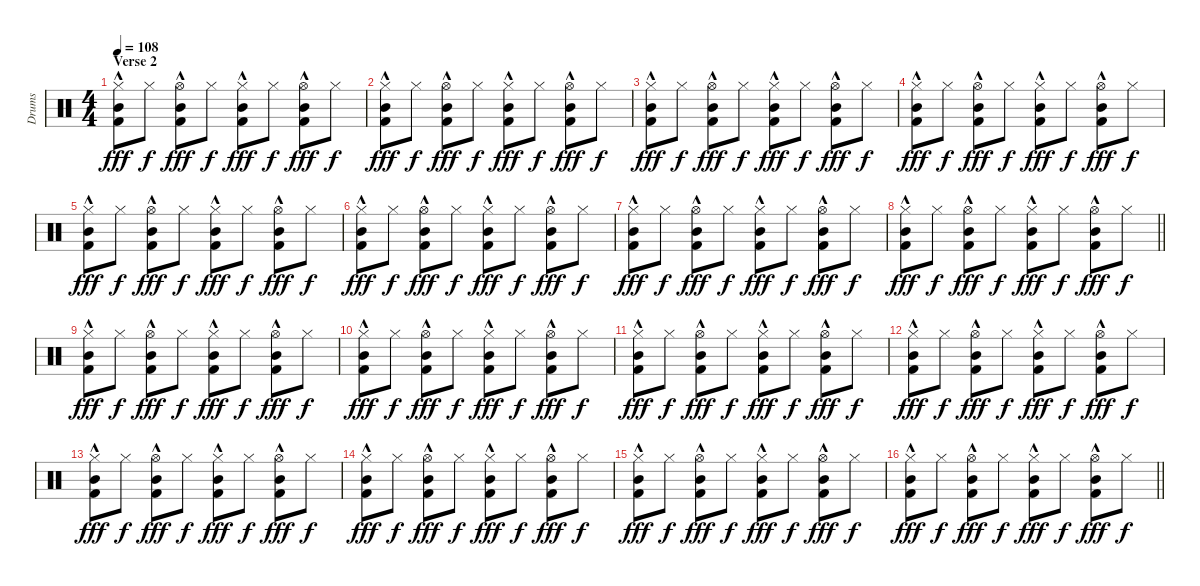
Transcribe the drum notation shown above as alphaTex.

\track ("Drums" "Drums") {instrument percussion}
\staff {score}
\articulation defaults
\ts (4 4)
\section ("" "Verse 2")
\tempo 108
\clef neutral
\ks c
("Hi-Hat (closed)" "Mid Tom (hit)" "Kick (hit) 2"{hac}).8{dy fff} "Hi-Hat (closed)".8{dy f} ("Hi-Hat (open)" "Mid Tom (hit)" "Kick (hit) 2"{hac}).8{dy fff} "Hi-Hat (closed)".8{dy f} ("Hi-Hat (closed)" "Mid Tom (hit)" "Kick (hit) 2"{hac}).8{dy fff} "Hi-Hat (closed)".8{dy f} ("Hi-Hat (open)" "Mid Tom (hit)" "Kick (hit) 2"{hac}).8{dy fff} "Hi-Hat (closed)".8{dy f} |
("Hi-Hat (closed)" "Mid Tom (hit)" "Kick (hit) 2"{hac}).8{dy fff} "Hi-Hat (closed)".8{dy f} ("Hi-Hat (open)" "Mid Tom (hit)" "Kick (hit) 2"{hac}).8{dy fff} "Hi-Hat (closed)".8{dy f} ("Hi-Hat (closed)" "Mid Tom (hit)" "Kick (hit) 2"{hac}).8{dy fff} "Hi-Hat (closed)".8{dy f} ("Hi-Hat (open)" "Mid Tom (hit)" "Kick (hit) 2"{hac}).8{dy fff} "Hi-Hat (closed)".8{dy f} |
("Hi-Hat (closed)" "Mid Tom (hit)" "Kick (hit) 2"{hac}).8{dy fff} "Hi-Hat (closed)".8{dy f} ("Hi-Hat (open)" "Mid Tom (hit)" "Kick (hit) 2"{hac}).8{dy fff} "Hi-Hat (closed)".8{dy f} ("Hi-Hat (closed)" "Mid Tom (hit)" "Kick (hit) 2"{hac}).8{dy fff} "Hi-Hat (closed)".8{dy f} ("Hi-Hat (open)" "Mid Tom (hit)" "Kick (hit) 2"{hac}).8{dy fff} "Hi-Hat (closed)".8{dy f} |
("Hi-Hat (closed)" "Mid Tom (hit)" "Kick (hit) 2"{hac}).8{dy fff} "Hi-Hat (closed)".8{dy f} ("Hi-Hat (open)" "Mid Tom (hit)" "Kick (hit) 2"{hac}).8{dy fff} "Hi-Hat (closed)".8{dy f} ("Hi-Hat (closed)" "Mid Tom (hit)" "Kick (hit) 2"{hac}).8{dy fff} "Hi-Hat (closed)".8{dy f} ("Hi-Hat (open)" "Mid Tom (hit)" "Kick (hit) 2"{hac}).8{dy fff} "Hi-Hat (closed)".8{dy f} |
("Hi-Hat (closed)" "Mid Tom (hit)" "Kick (hit) 2"{hac}).8{dy fff} "Hi-Hat (closed)".8{dy f} ("Hi-Hat (open)" "Mid Tom (hit)" "Kick (hit) 2"{hac}).8{dy fff} "Hi-Hat (closed)".8{dy f} ("Hi-Hat (closed)" "Mid Tom (hit)" "Kick (hit) 2"{hac}).8{dy fff} "Hi-Hat (closed)".8{dy f} ("Hi-Hat (open)" "Mid Tom (hit)" "Kick (hit) 2"{hac}).8{dy fff} "Hi-Hat (closed)".8{dy f} |
("Hi-Hat (closed)" "Mid Tom (hit)" "Kick (hit) 2"{hac}).8{dy fff} "Hi-Hat (closed)".8{dy f} ("Hi-Hat (open)" "Mid Tom (hit)" "Kick (hit) 2"{hac}).8{dy fff} "Hi-Hat (closed)".8{dy f} ("Hi-Hat (closed)" "Mid Tom (hit)" "Kick (hit) 2"{hac}).8{dy fff} "Hi-Hat (closed)".8{dy f} ("Hi-Hat (open)" "Mid Tom (hit)" "Kick (hit) 2"{hac}).8{dy fff} "Hi-Hat (closed)".8{dy f} |
("Hi-Hat (closed)" "Mid Tom (hit)" "Kick (hit) 2"{hac}).8{dy fff} "Hi-Hat (closed)".8{dy f} ("Hi-Hat (open)" "Mid Tom (hit)" "Kick (hit) 2"{hac}).8{dy fff} "Hi-Hat (closed)".8{dy f} ("Hi-Hat (closed)" "Mid Tom (hit)" "Kick (hit) 2"{hac}).8{dy fff} "Hi-Hat (closed)".8{dy f} ("Hi-Hat (open)" "Mid Tom (hit)" "Kick (hit) 2"{hac}).8{dy fff} "Hi-Hat (closed)".8{dy f} |
\barLineRight lightlight
("Hi-Hat (closed)" "Mid Tom (hit)" "Kick (hit) 2"{hac}).8{dy fff} "Hi-Hat (closed)".8{dy f} ("Hi-Hat (open)" "Mid Tom (hit)" "Kick (hit) 2"{hac}).8{dy fff} "Hi-Hat (closed)".8{dy f} ("Hi-Hat (closed)" "Mid Tom (hit)" "Kick (hit) 2"{hac}).8{dy fff} "Hi-Hat (closed)".8{dy f} ("Hi-Hat (open)" "Mid Tom (hit)" "Kick (hit) 2"{hac}).8{dy fff} "Hi-Hat (closed)".8{dy f} |
("Hi-Hat (closed)" "Mid Tom (hit)" "Kick (hit) 2"{hac}).8{dy fff} "Hi-Hat (closed)".8{dy f} ("Hi-Hat (open)" "Mid Tom (hit)" "Kick (hit) 2"{hac}).8{dy fff} "Hi-Hat (closed)".8{dy f} ("Hi-Hat (closed)" "Mid Tom (hit)" "Kick (hit) 2"{hac}).8{dy fff} "Hi-Hat (closed)".8{dy f} ("Hi-Hat (open)" "Mid Tom (hit)" "Kick (hit) 2"{hac}).8{dy fff} "Hi-Hat (closed)".8{dy f} |
("Hi-Hat (closed)" "Mid Tom (hit)" "Kick (hit) 2"{hac}).8{dy fff} "Hi-Hat (closed)".8{dy f} ("Hi-Hat (open)" "Mid Tom (hit)" "Kick (hit) 2"{hac}).8{dy fff} "Hi-Hat (closed)".8{dy f} ("Hi-Hat (closed)" "Mid Tom (hit)" "Kick (hit) 2"{hac}).8{dy fff} "Hi-Hat (closed)".8{dy f} ("Hi-Hat (open)" "Mid Tom (hit)" "Kick (hit) 2"{hac}).8{dy fff} "Hi-Hat (closed)".8{dy f} |
("Hi-Hat (closed)" "Mid Tom (hit)" "Kick (hit) 2"{hac}).8{dy fff} "Hi-Hat (closed)".8{dy f} ("Hi-Hat (open)" "Mid Tom (hit)" "Kick (hit) 2"{hac}).8{dy fff} "Hi-Hat (closed)".8{dy f} ("Hi-Hat (closed)" "Mid Tom (hit)" "Kick (hit) 2"{hac}).8{dy fff} "Hi-Hat (closed)".8{dy f} ("Hi-Hat (open)" "Mid Tom (hit)" "Kick (hit) 2"{hac}).8{dy fff} "Hi-Hat (closed)".8{dy f} |
("Hi-Hat (closed)" "Mid Tom (hit)" "Kick (hit) 2"{hac}).8{dy fff} "Hi-Hat (closed)".8{dy f} ("Hi-Hat (open)" "Mid Tom (hit)" "Kick (hit) 2"{hac}).8{dy fff} "Hi-Hat (closed)".8{dy f} ("Hi-Hat (closed)" "Mid Tom (hit)" "Kick (hit) 2"{hac}).8{dy fff} "Hi-Hat (closed)".8{dy f} ("Hi-Hat (open)" "Mid Tom (hit)" "Kick (hit) 2"{hac}).8{dy fff} "Hi-Hat (closed)".8{dy f} |
("Hi-Hat (closed)" "Mid Tom (hit)" "Kick (hit) 2"{hac}).8{dy fff} "Hi-Hat (closed)".8{dy f} ("Hi-Hat (open)" "Mid Tom (hit)" "Kick (hit) 2"{hac}).8{dy fff} "Hi-Hat (closed)".8{dy f} ("Hi-Hat (closed)" "Mid Tom (hit)" "Kick (hit) 2"{hac}).8{dy fff} "Hi-Hat (closed)".8{dy f} ("Hi-Hat (open)" "Mid Tom (hit)" "Kick (hit) 2"{hac}).8{dy fff} "Hi-Hat (closed)".8{dy f} |
("Hi-Hat (closed)" "Mid Tom (hit)" "Kick (hit) 2"{hac}).8{dy fff} "Hi-Hat (closed)".8{dy f} ("Hi-Hat (open)" "Mid Tom (hit)" "Kick (hit) 2"{hac}).8{dy fff} "Hi-Hat (closed)".8{dy f} ("Hi-Hat (closed)" "Mid Tom (hit)" "Kick (hit) 2"{hac}).8{dy fff} "Hi-Hat (closed)".8{dy f} ("Hi-Hat (open)" "Mid Tom (hit)" "Kick (hit) 2"{hac}).8{dy fff} "Hi-Hat (closed)".8{dy f} |
("Hi-Hat (closed)" "Mid Tom (hit)" "Kick (hit) 2"{hac}).8{dy fff} "Hi-Hat (closed)".8{dy f} ("Hi-Hat (open)" "Mid Tom (hit)" "Kick (hit) 2"{hac}).8{dy fff} "Hi-Hat (closed)".8{dy f} ("Hi-Hat (closed)" "Mid Tom (hit)" "Kick (hit) 2"{hac}).8{dy fff} "Hi-Hat (closed)".8{dy f} ("Hi-Hat (open)" "Mid Tom (hit)" "Kick (hit) 2"{hac}).8{dy fff} "Hi-Hat (closed)".8{dy f} |
\barLineRight lightlight
("Hi-Hat (closed)" "Mid Tom (hit)" "Kick (hit) 2"{hac}).8{dy fff} "Hi-Hat (closed)".8{dy f} ("Hi-Hat (open)" "Mid Tom (hit)" "Kick (hit) 2"{hac}).8{dy fff} "Hi-Hat (closed)".8{dy f} ("Hi-Hat (closed)" "Mid Tom (hit)" "Kick (hit) 2"{hac}).8{dy fff} "Hi-Hat (closed)".8{dy f} ("Hi-Hat (open)" "Mid Tom (hit)" "Kick (hit) 2"{hac}).8{dy fff} "Hi-Hat (closed)".8{dy f}
